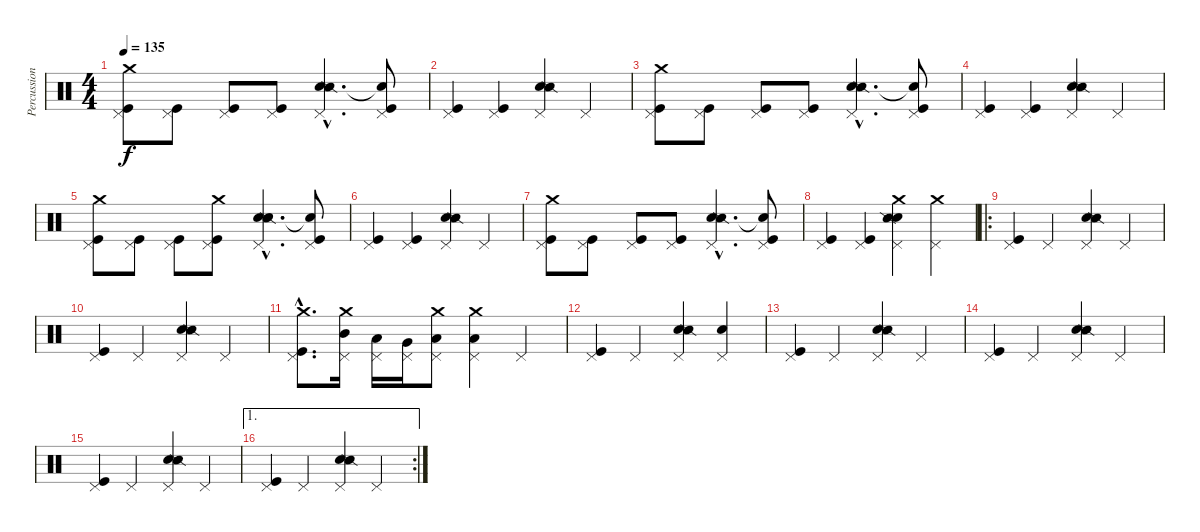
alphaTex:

\track ("Percussion" "Percussion") {instrument percussion}
\staff {score}
\articulation defaults
\ts (4 4)
\tempo 135
\clef neutral
\ks c
("Crash medium (hit)" "Pedal Hi-Hat (hit)" "Kick (hit)").8{dy f} ("Pedal Hi-Hat (hit)" "Kick (hit)").8 ("Pedal Hi-Hat (hit)" "Kick (hit)").8 ("Pedal Hi-Hat (hit)" "Kick (hit)").8 ("Electric Snare (hit)"{hac} "Snare (side stick) 2"{hac} "Pedal Hi-Hat (hit)"{hac}).4{d} ("Snare (hit)"{t} "Pedal Hi-Hat (hit)" "Kick (hit)").8 |
("Pedal Hi-Hat (hit)" "Kick (hit)").4 ("Pedal Hi-Hat (hit)" "Kick (hit)").4 ("Electric Snare (hit)" "Snare (side stick) 2" "Pedal Hi-Hat (hit)").4 "Pedal Hi-Hat (hit)".4 |
("Crash medium (hit)" "Pedal Hi-Hat (hit)" "Kick (hit)").8 ("Pedal Hi-Hat (hit)" "Kick (hit)").8 ("Pedal Hi-Hat (hit)" "Kick (hit)").8 ("Pedal Hi-Hat (hit)" "Kick (hit)").8 ("Electric Snare (hit)"{hac} "Snare (side stick) 2"{hac} "Pedal Hi-Hat (hit)"{hac}).4{d} ("Snare (hit)"{t} "Pedal Hi-Hat (hit)" "Kick (hit)").8 |
("Pedal Hi-Hat (hit)" "Kick (hit)").4 ("Pedal Hi-Hat (hit)" "Kick (hit)").4 ("Electric Snare (hit)" "Snare (side stick) 2" "Pedal Hi-Hat (hit)").4 "Pedal Hi-Hat (hit)".4 |
("Crash medium (hit)" "Pedal Hi-Hat (hit)" "Kick (hit)").8 ("Pedal Hi-Hat (hit)" "Kick (hit)").8 ("Pedal Hi-Hat (hit)" "Kick (hit)").8 ("Crash medium (hit)" "Pedal Hi-Hat (hit)" "Kick (hit)").8 ("Electric Snare (hit)"{hac} "Electric Snare (hit)"{hac} "Snare (side stick) 2"{hac} "Pedal Hi-Hat (hit)"{hac}).4{d} ("Snare (hit)"{t} "Pedal Hi-Hat (hit)" "Kick (hit)").8 |
("Pedal Hi-Hat (hit)" "Kick (hit)").4 ("Pedal Hi-Hat (hit)" "Kick (hit)").4 ("Electric Snare (hit)" "Snare (side stick) 2" "Pedal Hi-Hat (hit)").4 "Pedal Hi-Hat (hit)".4 |
("Crash medium (hit)" "Pedal Hi-Hat (hit)" "Kick (hit)").8 ("Pedal Hi-Hat (hit)" "Kick (hit)").8 ("Pedal Hi-Hat (hit)" "Kick (hit)").8 ("Pedal Hi-Hat (hit)" "Kick (hit)").8 ("Electric Snare (hit)"{hac} "Snare (side stick) 2"{hac} "Pedal Hi-Hat (hit)"{hac}).4{d} ("Snare (hit)"{t} "Pedal Hi-Hat (hit)" "Kick (hit)").8 |
("Pedal Hi-Hat (hit)" "Kick (hit)").4 ("Pedal Hi-Hat (hit)" "Kick (hit)").4 ("Crash medium (hit)" "Electric Snare (hit)" "Snare (side stick) 2" "Pedal Hi-Hat (hit)").4 ("Crash medium (hit)" "Pedal Hi-Hat (hit)").4 |
\ro
("Pedal Hi-Hat (hit)" "Kick (hit)").4 "Pedal Hi-Hat (hit)".4 ("Electric Snare (hit)" "Snare (side stick) 2" "Pedal Hi-Hat (hit)").4 "Pedal Hi-Hat (hit)".4 |
("Pedal Hi-Hat (hit)" "Kick (hit)").4 "Pedal Hi-Hat (hit)".4 ("Electric Snare (hit)" "Snare (side stick) 2" "Pedal Hi-Hat (hit)").4 "Pedal Hi-Hat (hit)".4 |
("Pedal Hi-Hat (hit)"{hac} "Crash medium (hit)"{hac} "Kick (hit)"{hac}).8{d} ("Pedal Hi-Hat (hit)" "Mid Tom (hit)" "Crash medium (hit)").16 ("Low Tom (hit)" "Pedal Hi-Hat (hit)").16 ("Pedal Hi-Hat (hit)" "Very Low Tom (hit)").16 ("Pedal Hi-Hat (hit)" "Low Floor Tom (hit)" "Crash medium (hit)").8 ("Pedal Hi-Hat (hit)" "Low Tom (hit)" "Crash medium (hit)").4 "Pedal Hi-Hat (hit)".4 |
("Pedal Hi-Hat (hit)" "Kick (hit)").4 "Pedal Hi-Hat (hit)".4 ("Electric Snare (hit)" "Snare (side stick) 2" "Pedal Hi-Hat (hit)").4 ("Pedal Hi-Hat (hit)" "Electric Snare (hit)").4 |
("Pedal Hi-Hat (hit)" "Kick (hit)").4 "Pedal Hi-Hat (hit)".4 ("Electric Snare (hit)" "Snare (side stick) 2" "Pedal Hi-Hat (hit)").4 "Pedal Hi-Hat (hit)".4 |
("Pedal Hi-Hat (hit)" "Kick (hit)").4 "Pedal Hi-Hat (hit)".4 ("Electric Snare (hit)" "Snare (side stick) 2" "Pedal Hi-Hat (hit)").4 "Pedal Hi-Hat (hit)".4 |
("Pedal Hi-Hat (hit)" "Kick (hit)").4 "Pedal Hi-Hat (hit)".4 ("Electric Snare (hit)" "Snare (side stick) 2" "Pedal Hi-Hat (hit)").4 "Pedal Hi-Hat (hit)".4 |
\ae 1
\rc 2
("Pedal Hi-Hat (hit)" "Kick (hit)").4 "Pedal Hi-Hat (hit)".4 ("Electric Snare (hit)" "Snare (side stick) 2" "Pedal Hi-Hat (hit)").4 "Pedal Hi-Hat (hit)".4
